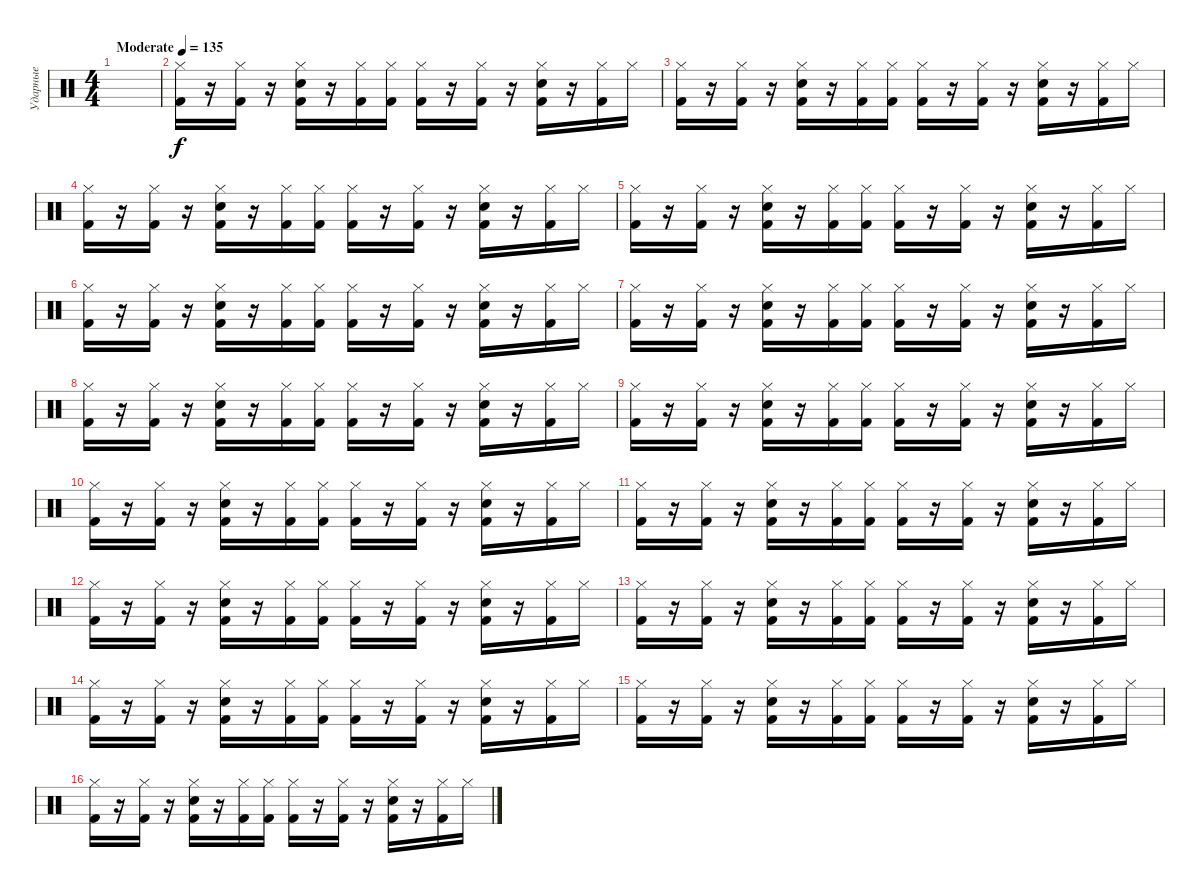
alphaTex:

\track ("Ударные" "Ударные") {instrument percussion}
\staff {score}
\articulation defaults
\ts (4 4)
\tempo (135 "Moderate")
\clef neutral
\ks c
|
("Hi-Hat (closed)" "Kick (hit) 2").16 r.16 ("Hi-Hat (closed)" "Kick (hit) 2").16 r.16 ("Hi-Hat (closed)" "Electric Snare (hit)" "Kick (hit) 2").16 r.16 ("Hi-Hat (closed)" "Kick (hit) 2").16 ("Hi-Hat (closed)" "Kick (hit) 2").16 ("Hi-Hat (closed)" "Kick (hit) 2").16 r.16 ("Hi-Hat (closed)" "Kick (hit) 2").16 r.16 ("Hi-Hat (closed)" "Electric Snare (hit)" "Kick (hit) 2").16 r.16 ("Hi-Hat (closed)" "Kick (hit) 2").16 "Hi-Hat (closed)".16 |
("Hi-Hat (closed)" "Kick (hit) 2").16 r.16 ("Hi-Hat (closed)" "Kick (hit) 2").16 r.16 ("Hi-Hat (closed)" "Electric Snare (hit)" "Kick (hit) 2").16 r.16 ("Hi-Hat (closed)" "Kick (hit) 2").16 ("Hi-Hat (closed)" "Kick (hit) 2").16 ("Hi-Hat (closed)" "Kick (hit) 2").16 r.16 ("Hi-Hat (closed)" "Kick (hit) 2").16 r.16 ("Hi-Hat (closed)" "Electric Snare (hit)" "Kick (hit) 2").16 r.16 ("Hi-Hat (closed)" "Kick (hit) 2").16 "Hi-Hat (closed)".16 |
("Hi-Hat (closed)" "Kick (hit) 2").16 r.16 ("Hi-Hat (closed)" "Kick (hit) 2").16 r.16 ("Hi-Hat (closed)" "Electric Snare (hit)" "Kick (hit) 2").16 r.16 ("Hi-Hat (closed)" "Kick (hit) 2").16 ("Hi-Hat (closed)" "Kick (hit) 2").16 ("Hi-Hat (closed)" "Kick (hit) 2").16 r.16 ("Hi-Hat (closed)" "Kick (hit) 2").16 r.16 ("Hi-Hat (closed)" "Electric Snare (hit)" "Kick (hit) 2").16 r.16 ("Hi-Hat (closed)" "Kick (hit) 2").16 "Hi-Hat (closed)".16 |
("Hi-Hat (closed)" "Kick (hit) 2").16 r.16 ("Hi-Hat (closed)" "Kick (hit) 2").16 r.16 ("Hi-Hat (closed)" "Electric Snare (hit)" "Kick (hit) 2").16 r.16 ("Hi-Hat (closed)" "Kick (hit) 2").16 ("Hi-Hat (closed)" "Kick (hit) 2").16 ("Hi-Hat (closed)" "Kick (hit) 2").16 r.16 ("Hi-Hat (closed)" "Kick (hit) 2").16 r.16 ("Hi-Hat (closed)" "Electric Snare (hit)" "Kick (hit) 2").16 r.16 ("Hi-Hat (closed)" "Kick (hit) 2").16 "Hi-Hat (closed)".16 |
("Hi-Hat (closed)" "Kick (hit) 2").16 r.16 ("Hi-Hat (closed)" "Kick (hit) 2").16 r.16 ("Hi-Hat (closed)" "Electric Snare (hit)" "Kick (hit) 2").16 r.16 ("Hi-Hat (closed)" "Kick (hit) 2").16 ("Hi-Hat (closed)" "Kick (hit) 2").16 ("Hi-Hat (closed)" "Kick (hit) 2").16 r.16 ("Hi-Hat (closed)" "Kick (hit) 2").16 r.16 ("Hi-Hat (closed)" "Electric Snare (hit)" "Kick (hit) 2").16 r.16 ("Hi-Hat (closed)" "Kick (hit) 2").16 "Hi-Hat (closed)".16 |
("Hi-Hat (closed)" "Kick (hit) 2").16 r.16 ("Hi-Hat (closed)" "Kick (hit) 2").16 r.16 ("Hi-Hat (closed)" "Electric Snare (hit)" "Kick (hit) 2").16 r.16 ("Hi-Hat (closed)" "Kick (hit) 2").16 ("Hi-Hat (closed)" "Kick (hit) 2").16 ("Hi-Hat (closed)" "Kick (hit) 2").16 r.16 ("Hi-Hat (closed)" "Kick (hit) 2").16 r.16 ("Hi-Hat (closed)" "Electric Snare (hit)" "Kick (hit) 2").16 r.16 ("Hi-Hat (closed)" "Kick (hit) 2").16 "Hi-Hat (closed)".16 |
("Hi-Hat (closed)" "Kick (hit) 2").16 r.16 ("Hi-Hat (closed)" "Kick (hit) 2").16 r.16 ("Hi-Hat (closed)" "Electric Snare (hit)" "Kick (hit) 2").16 r.16 ("Hi-Hat (closed)" "Kick (hit) 2").16 ("Hi-Hat (closed)" "Kick (hit) 2").16 ("Hi-Hat (closed)" "Kick (hit) 2").16 r.16 ("Hi-Hat (closed)" "Kick (hit) 2").16 r.16 ("Hi-Hat (closed)" "Electric Snare (hit)" "Kick (hit) 2").16 r.16 ("Hi-Hat (closed)" "Kick (hit) 2").16 "Hi-Hat (closed)".16 |
("Hi-Hat (closed)" "Kick (hit) 2").16 r.16 ("Hi-Hat (closed)" "Kick (hit) 2").16 r.16 ("Hi-Hat (closed)" "Electric Snare (hit)" "Kick (hit) 2").16 r.16 ("Hi-Hat (closed)" "Kick (hit) 2").16 ("Hi-Hat (closed)" "Kick (hit) 2").16 ("Hi-Hat (closed)" "Kick (hit) 2").16 r.16 ("Hi-Hat (closed)" "Kick (hit) 2").16 r.16 ("Hi-Hat (closed)" "Electric Snare (hit)" "Kick (hit) 2").16 r.16 ("Hi-Hat (closed)" "Kick (hit) 2").16 "Hi-Hat (closed)".16 |
("Hi-Hat (closed)" "Kick (hit) 2").16 r.16 ("Hi-Hat (closed)" "Kick (hit) 2").16 r.16 ("Hi-Hat (closed)" "Electric Snare (hit)" "Kick (hit) 2").16 r.16 ("Hi-Hat (closed)" "Kick (hit) 2").16 ("Hi-Hat (closed)" "Kick (hit) 2").16 ("Hi-Hat (closed)" "Kick (hit) 2").16 r.16 ("Hi-Hat (closed)" "Kick (hit) 2").16 r.16 ("Hi-Hat (closed)" "Electric Snare (hit)" "Kick (hit) 2").16 r.16 ("Hi-Hat (closed)" "Kick (hit) 2").16 "Hi-Hat (closed)".16 |
("Hi-Hat (closed)" "Kick (hit) 2").16 r.16 ("Hi-Hat (closed)" "Kick (hit) 2").16 r.16 ("Hi-Hat (closed)" "Electric Snare (hit)" "Kick (hit) 2").16 r.16 ("Hi-Hat (closed)" "Kick (hit) 2").16 ("Hi-Hat (closed)" "Kick (hit) 2").16 ("Hi-Hat (closed)" "Kick (hit) 2").16 r.16 ("Hi-Hat (closed)" "Kick (hit) 2").16 r.16 ("Hi-Hat (closed)" "Electric Snare (hit)" "Kick (hit) 2").16 r.16 ("Hi-Hat (closed)" "Kick (hit) 2").16 "Hi-Hat (closed)".16 |
("Hi-Hat (closed)" "Kick (hit) 2").16 r.16 ("Hi-Hat (closed)" "Kick (hit) 2").16 r.16 ("Hi-Hat (closed)" "Electric Snare (hit)" "Kick (hit) 2").16 r.16 ("Hi-Hat (closed)" "Kick (hit) 2").16 ("Hi-Hat (closed)" "Kick (hit) 2").16 ("Hi-Hat (closed)" "Kick (hit) 2").16 r.16 ("Hi-Hat (closed)" "Kick (hit) 2").16 r.16 ("Hi-Hat (closed)" "Electric Snare (hit)" "Kick (hit) 2").16 r.16 ("Hi-Hat (closed)" "Kick (hit) 2").16 "Hi-Hat (closed)".16 |
("Hi-Hat (closed)" "Kick (hit) 2").16 r.16 ("Hi-Hat (closed)" "Kick (hit) 2").16 r.16 ("Hi-Hat (closed)" "Electric Snare (hit)" "Kick (hit) 2").16 r.16 ("Hi-Hat (closed)" "Kick (hit) 2").16 ("Hi-Hat (closed)" "Kick (hit) 2").16 ("Hi-Hat (closed)" "Kick (hit) 2").16 r.16 ("Hi-Hat (closed)" "Kick (hit) 2").16 r.16 ("Hi-Hat (closed)" "Electric Snare (hit)" "Kick (hit) 2").16 r.16 ("Hi-Hat (closed)" "Kick (hit) 2").16 "Hi-Hat (closed)".16 |
("Hi-Hat (closed)" "Kick (hit) 2").16 r.16 ("Hi-Hat (closed)" "Kick (hit) 2").16 r.16 ("Hi-Hat (closed)" "Electric Snare (hit)" "Kick (hit) 2").16 r.16 ("Hi-Hat (closed)" "Kick (hit) 2").16 ("Hi-Hat (closed)" "Kick (hit) 2").16 ("Hi-Hat (closed)" "Kick (hit) 2").16 r.16 ("Hi-Hat (closed)" "Kick (hit) 2").16 r.16 ("Hi-Hat (closed)" "Electric Snare (hit)" "Kick (hit) 2").16 r.16 ("Hi-Hat (closed)" "Kick (hit) 2").16 "Hi-Hat (closed)".16 |
("Hi-Hat (closed)" "Kick (hit) 2").16 r.16 ("Hi-Hat (closed)" "Kick (hit) 2").16 r.16 ("Hi-Hat (closed)" "Electric Snare (hit)" "Kick (hit) 2").16 r.16 ("Hi-Hat (closed)" "Kick (hit) 2").16 ("Hi-Hat (closed)" "Kick (hit) 2").16 ("Hi-Hat (closed)" "Kick (hit) 2").16 r.16 ("Hi-Hat (closed)" "Kick (hit) 2").16 r.16 ("Hi-Hat (closed)" "Electric Snare (hit)" "Kick (hit) 2").16 r.16 ("Hi-Hat (closed)" "Kick (hit) 2").16 "Hi-Hat (closed)".16 |
("Hi-Hat (closed)" "Kick (hit) 2").16 r.16 ("Hi-Hat (closed)" "Kick (hit) 2").16 r.16 ("Hi-Hat (closed)" "Electric Snare (hit)" "Kick (hit) 2").16 r.16 ("Hi-Hat (closed)" "Kick (hit) 2").16 ("Hi-Hat (closed)" "Kick (hit) 2").16 ("Hi-Hat (closed)" "Kick (hit) 2").16 r.16 ("Hi-Hat (closed)" "Kick (hit) 2").16 r.16 ("Hi-Hat (closed)" "Electric Snare (hit)" "Kick (hit) 2").16 r.16 ("Hi-Hat (closed)" "Kick (hit) 2").16 "Hi-Hat (closed)".16
